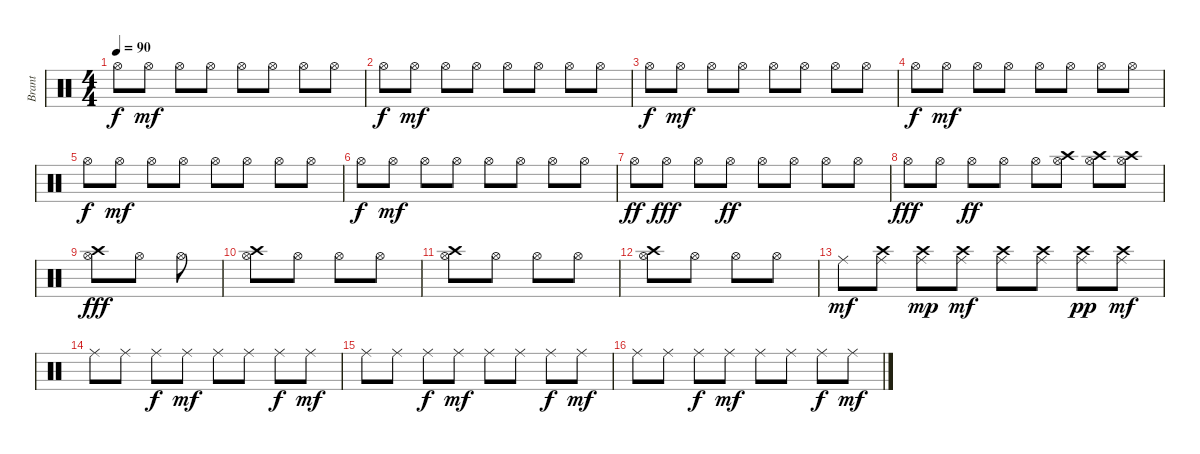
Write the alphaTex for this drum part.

\track ("Brant" "Brant") {instrument percussion}
\staff {score}
\articulation defaults
\ts (4 4)
\tempo 90
\clef neutral
\ks c "Hi-Hat (open)".8{dy f} "Hi-Hat (open)".8{dy mf} "Hi-Hat (open)".8 "Hi-Hat (open)".8 "Hi-Hat (open)".8 "Hi-Hat (open)".8 "Hi-Hat (open)".8 "Hi-Hat (open)".8
|
"Hi-Hat (open)".8{dy f} "Hi-Hat (open)".8{dy mf} "Hi-Hat (open)".8 "Hi-Hat (open)".8 "Hi-Hat (open)".8 "Hi-Hat (open)".8 "Hi-Hat (open)".8 "Hi-Hat (open)".8 |
"Hi-Hat (open)".8{dy f} "Hi-Hat (open)".8{dy mf} "Hi-Hat (open)".8 "Hi-Hat (open)".8 "Hi-Hat (open)".8 "Hi-Hat (open)".8 "Hi-Hat (open)".8 "Hi-Hat (open)".8 |
"Hi-Hat (open)".8{dy f} "Hi-Hat (open)".8{dy mf} "Hi-Hat (open)".8 "Hi-Hat (open)".8 "Hi-Hat (open)".8 "Hi-Hat (open)".8 "Hi-Hat (open)".8 "Hi-Hat (open)".8 |
"Hi-Hat (open)".8{dy f} "Hi-Hat (open)".8{dy mf} "Hi-Hat (open)".8 "Hi-Hat (open)".8 "Hi-Hat (open)".8 "Hi-Hat (open)".8 "Hi-Hat (open)".8 "Hi-Hat (open)".8 |
"Hi-Hat (open)".8{dy f} "Hi-Hat (open)".8{dy mf} "Hi-Hat (open)".8 "Hi-Hat (open)".8 "Hi-Hat (open)".8 "Hi-Hat (open)".8 "Hi-Hat (open)".8 "Hi-Hat (open)".8 |
"Hi-Hat (open)".8{dy ff} "Hi-Hat (open)".8{dy fff} "Hi-Hat (open)".8 "Hi-Hat (open)".8{dy ff} "Hi-Hat (open)".8 "Hi-Hat (open)".8 "Hi-Hat (open)".8 "Hi-Hat (open)".8 |
"Hi-Hat (open)".8{dy fff} "Hi-Hat (open)".8 "Hi-Hat (open)".8{dy ff} "Hi-Hat (open)".8 "Hi-Hat (open)".8 ("Crash high (hit)" "Hi-Hat (open)").8 ("Crash high (hit)" "Hi-Hat (open)").8 ("Crash high (hit)" "Hi-Hat (open)").8 |
("Crash high (hit)" "Hi-Hat (open)").8{dy fff} "Hi-Hat (open)".8 "Hi-Hat (open)".8 |
("Crash high (hit)" "Hi-Hat (open)").8 "Hi-Hat (open)".8 "Hi-Hat (open)".8 "Hi-Hat (open)".8 |
("Crash high (hit)" "Hi-Hat (open)").8 "Hi-Hat (open)".8 "Hi-Hat (open)".8 "Hi-Hat (open)".8 |
("Crash high (hit)" "Hi-Hat (open)").8 "Hi-Hat (open)".8 "Hi-Hat (open)".8 "Hi-Hat (open)".8 |
"Ride (middle)".8{dy mf} ("Crash high (hit)" "Ride (middle)").8 ("Crash high (hit)" "Ride (middle)").8{dy mp} ("Crash high (hit)" "Ride (middle)").8{dy mf} ("Crash high (hit)" "Ride (middle)").8 ("Crash high (hit)" "Ride (middle)").8 ("Crash high (hit)" "Ride (middle)").8{dy pp} ("Crash high (hit)" "Ride (middle)").8{dy mf} |
"Ride (middle)".8 "Ride (middle)".8 "Ride (middle)".8{dy f} "Ride (middle)".8{dy mf} "Ride (middle)".8 "Ride (middle)".8 "Ride (middle)".8{dy f} "Ride (middle)".8{dy mf} |
"Ride (middle)".8 "Ride (middle)".8 "Ride (middle)".8{dy f} "Ride (middle)".8{dy mf} "Ride (middle)".8 "Ride (middle)".8 "Ride (middle)".8{dy f} "Ride (middle)".8{dy mf} |
"Ride (middle)".8 "Ride (middle)".8 "Ride (middle)".8{dy f} "Ride (middle)".8{dy mf} "Ride (middle)".8 "Ride (middle)".8 "Ride (middle)".8{dy f} "Ride (middle)".8{dy mf}
